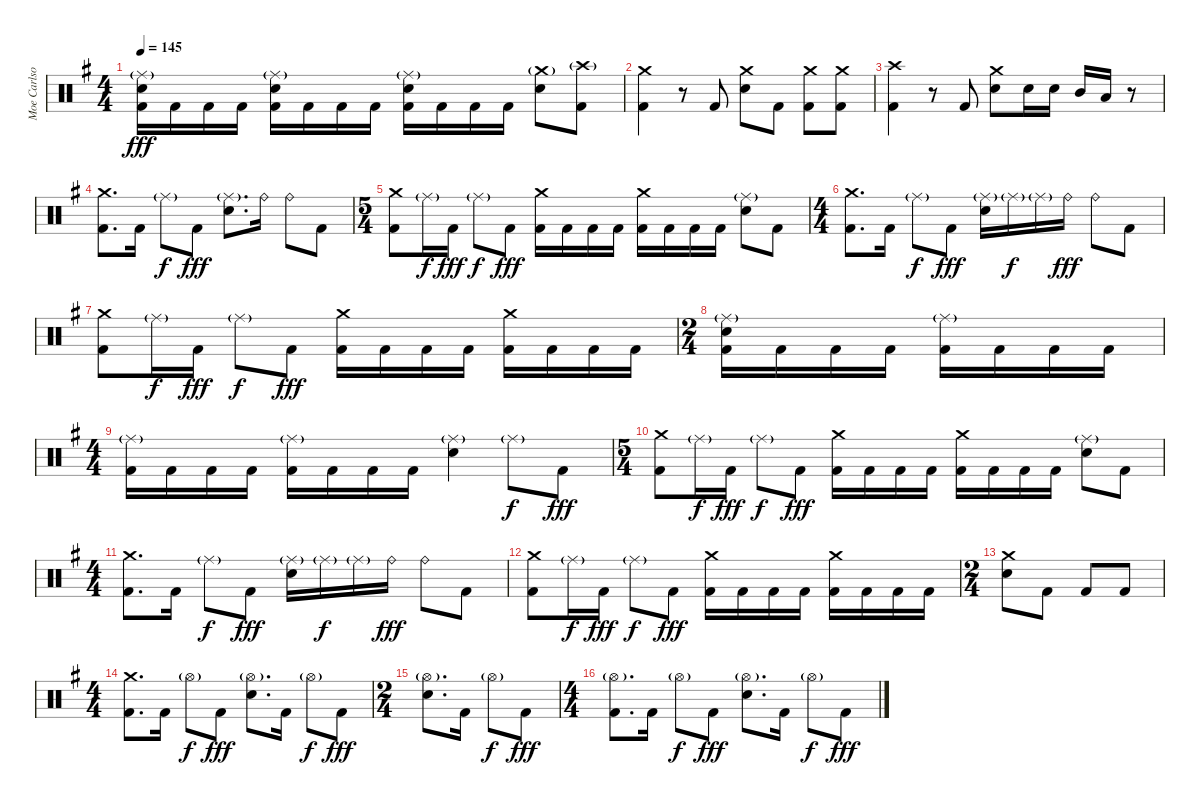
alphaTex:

\track ("Moe Carlson" "Moe Carlso") {instrument percussion}
\staff {score}
\articulation defaults
\ts (4 4)
\tempo 145
\clef neutral
\ks g
("Ride (middle)"{g} "Electric Snare (hit)" "Kick (hit) 2").16{dy fff} "Kick (hit) 2".16 "Kick (hit) 2".16 "Kick (hit) 2".16 ("Ride (middle)"{g} "Electric Snare (hit)" "Kick (hit) 2").16 "Kick (hit) 2".16 "Kick (hit) 2".16 "Kick (hit) 2".16 ("Ride (middle)"{g} "Electric Snare (hit)" "Kick (hit) 2").16 "Kick (hit) 2".16 "Kick (hit) 2".16 "Kick (hit) 2".16 ("Crash medium (hit)"{g} "Electric Snare (hit)").8 ("Crash high (hit)"{g} "Kick (hit) 2").8 |
("Crash medium (hit)" "Kick (hit) 2").4 r.8 "Kick (hit) 2".8 ("Crash medium (hit)" "Electric Snare (hit)").8 "Kick (hit) 2".8 ("Crash medium (hit)" "Kick (hit) 2").8 ("Crash medium (hit)" "Kick (hit) 2").8 |
("Crash high (hit)" "Kick (hit) 2").4 r.8 "Kick (hit) 2".8 ("Crash medium (hit)" "Electric Snare (hit)").8 "Electric Snare (hit)".16 "Electric Snare (hit)".16 "Mid Tom (hit)".16 "Low Tom (hit)".16 r.8 |
("Crash medium (hit)" "Kick (hit) 2").8{d} "Kick (hit) 2".16 "Ride (middle)"{g}.8{dy f} "Kick (hit) 2".8{dy fff} ("Ride (middle)"{g} "Electric Snare (hit)").8{d} "Ride (bell)".16 "Ride (bell)".8 "Kick (hit) 2".8 |
\ts (5 4)
("Crash medium (hit)" "Kick (hit) 2").8 "Ride (middle)"{g}.16{dy f} "Kick (hit) 2".16{dy fff} "Ride (middle)"{g}.8{dy f} "Kick (hit) 2".8{dy fff} ("Crash medium (hit)" "Kick (hit) 2").16 "Kick (hit) 2".16 "Kick (hit) 2".16 "Kick (hit) 2".16 ("Crash medium (hit)" "Kick (hit) 2").16 "Kick (hit) 2".16 "Kick (hit) 2".16 "Kick (hit) 2".16 ("Ride (middle)"{g} "Electric Snare (hit)").8 "Kick (hit) 2".8 |
\ts (4 4)
("Crash medium (hit)" "Kick (hit) 2").8{d} "Kick (hit) 2".16 "Ride (middle)"{g}.8{dy f} "Kick (hit) 2".8{dy fff} ("Ride (middle)"{g} "Electric Snare (hit)").16 "Ride (middle)"{g}.16{dy f} "Ride (middle)"{g}.16 "Ride (bell)".16{dy fff} "Ride (bell)".8 "Kick (hit) 2".8 |
("Crash medium (hit)" "Kick (hit) 2").8 "Ride (middle)"{g}.16{dy f} "Kick (hit) 2".16{dy fff} "Ride (middle)"{g}.8{dy f} "Kick (hit) 2".8{dy fff} ("Crash medium (hit)" "Kick (hit) 2").16 "Kick (hit) 2".16 "Kick (hit) 2".16 "Kick (hit) 2".16 ("Crash medium (hit)" "Kick (hit) 2").16 "Kick (hit) 2".16 "Kick (hit) 2".16 "Kick (hit) 2".16 |
\ts (2 4)
("Ride (middle)"{g} "Electric Snare (hit)" "Kick (hit) 2").16 "Kick (hit) 2".16 "Kick (hit) 2".16 "Kick (hit) 2".16 ("Ride (middle)"{g} "Kick (hit) 2").16 "Kick (hit) 2".16 "Kick (hit) 2".16 "Kick (hit) 2".16 |
\ts (4 4)
("Ride (middle)"{g} "Kick (hit) 2").16 "Kick (hit) 2".16 "Kick (hit) 2".16 "Kick (hit) 2".16 ("Ride (middle)"{g} "Kick (hit) 2").16 "Kick (hit) 2".16 "Kick (hit) 2".16 "Kick (hit) 2".16 ("Ride (middle)"{g} "Electric Snare (hit)").4 "Ride (middle)"{g}.8{dy f} "Kick (hit) 2".8{dy fff} |
\ts (5 4)
("Crash medium (hit)" "Kick (hit) 2").8 "Ride (middle)"{g}.16{dy f} "Kick (hit) 2".16{dy fff} "Ride (middle)"{g}.8{dy f} "Kick (hit) 2".8{dy fff} ("Crash medium (hit)" "Kick (hit) 2").16 "Kick (hit) 2".16 "Kick (hit) 2".16 "Kick (hit) 2".16 ("Crash medium (hit)" "Kick (hit) 2").16 "Kick (hit) 2".16 "Kick (hit) 2".16 "Kick (hit) 2".16 ("Ride (middle)"{g} "Electric Snare (hit)").8 "Kick (hit) 2".8 |
\ts (4 4)
("Crash medium (hit)" "Kick (hit) 2").8{d} "Kick (hit) 2".16 "Ride (middle)"{g}.8{dy f} "Kick (hit) 2".8{dy fff} ("Ride (middle)"{g} "Electric Snare (hit)").16 "Ride (middle)"{g}.16{dy f} "Ride (middle)"{g}.16 "Ride (bell)".16{dy fff} "Ride (bell)".8 "Kick (hit) 2".8 |
("Crash medium (hit)" "Kick (hit) 2").8 "Ride (middle)"{g}.16{dy f} "Kick (hit) 2".16{dy fff} "Ride (middle)"{g}.8{dy f} "Kick (hit) 2".8{dy fff} ("Crash medium (hit)" "Kick (hit) 2").16 "Kick (hit) 2".16 "Kick (hit) 2".16 "Kick (hit) 2".16 ("Crash medium (hit)" "Kick (hit) 2").16 "Kick (hit) 2".16 "Kick (hit) 2".16 "Kick (hit) 2".16 |
\ts (2 4)
("Crash medium (hit)" "Electric Snare (hit)").8 "Kick (hit) 2".8 "Kick (hit) 2".8 "Kick (hit) 2".8 |
\ts (4 4)
("Crash medium (hit)" "Kick (hit) 2").8{d} "Kick (hit) 2".16 "Hi-Hat (open)"{g}.8{dy f} "Kick (hit) 2".8{dy fff} ("Hi-Hat (open)"{g} "Electric Snare (hit)").8{d} "Kick (hit) 2".16 "Hi-Hat (open)"{g}.8{dy f} "Kick (hit) 2".8{dy fff} |
\ts (2 4)
("Hi-Hat (open)"{g} "Electric Snare (hit)").8{d} "Kick (hit) 2".16 "Hi-Hat (open)"{g}.8{dy f} "Kick (hit) 2".8{dy fff} |
\ts (4 4)
("Hi-Hat (open)"{g} "Kick (hit) 2").8{d} "Kick (hit) 2".16 "Hi-Hat (open)"{g}.8{dy f} "Kick (hit) 2".8{dy fff} ("Hi-Hat (open)"{g} "Electric Snare (hit)").8{d} "Kick (hit) 2".16 "Hi-Hat (open)"{g}.8{dy f} "Kick (hit) 2".8{dy fff}
